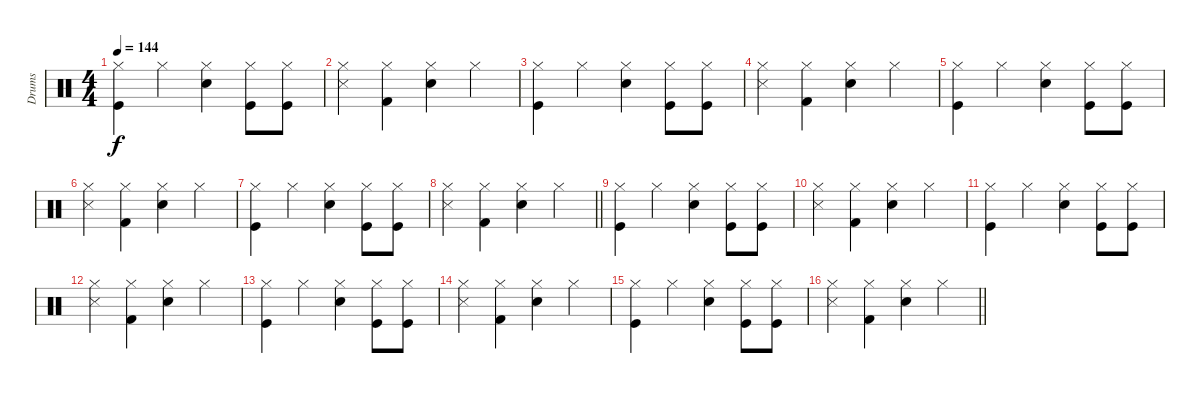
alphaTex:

\track ("Drums" "Drums") {instrument percussion}
\staff {score}
\articulation defaults
\ts (4 4)
\tempo 144
\clef neutral
\ks c
("Hi-Hat (closed)" "Kick (hit)").4{dy f} "Hi-Hat (closed)".4 ("Hi-Hat (closed)" "Electric Snare (hit)").4 ("Hi-Hat (closed)" "Kick (hit)").8 ("Hi-Hat (closed)" "Kick (hit)").8 |
("Hi-Hat (closed)" "Snare (side stick) 3").4 ("Hi-Hat (closed)" "Kick (hit) 2").4 ("Hi-Hat (closed)" "Electric Snare (hit)").4 "Hi-Hat (closed)".4 |
("Hi-Hat (closed)" "Kick (hit)").4 "Hi-Hat (closed)".4 ("Hi-Hat (closed)" "Electric Snare (hit)").4 ("Hi-Hat (closed)" "Kick (hit)").8 ("Hi-Hat (closed)" "Kick (hit)").8 |
("Hi-Hat (closed)" "Snare (side stick) 3").4 ("Hi-Hat (closed)" "Kick (hit) 2").4 ("Hi-Hat (closed)" "Electric Snare (hit)").4 "Hi-Hat (closed)".4 |
("Hi-Hat (closed)" "Kick (hit)").4 "Hi-Hat (closed)".4 ("Hi-Hat (closed)" "Electric Snare (hit)").4 ("Hi-Hat (closed)" "Kick (hit)").8 ("Hi-Hat (closed)" "Kick (hit)").8 |
("Hi-Hat (closed)" "Snare (side stick) 3").4 ("Hi-Hat (closed)" "Kick (hit) 2").4 ("Hi-Hat (closed)" "Electric Snare (hit)").4 "Hi-Hat (closed)".4 |
("Hi-Hat (closed)" "Kick (hit)").4 "Hi-Hat (closed)".4 ("Hi-Hat (closed)" "Electric Snare (hit)").4 ("Hi-Hat (closed)" "Kick (hit)").8 ("Hi-Hat (closed)" "Kick (hit)").8 |
\barLineRight lightlight
("Hi-Hat (closed)" "Snare (side stick) 3").4 ("Hi-Hat (closed)" "Kick (hit) 2").4 ("Hi-Hat (closed)" "Electric Snare (hit)").4 "Hi-Hat (closed)".4 |
("Hi-Hat (closed)" "Kick (hit)").4 "Hi-Hat (closed)".4 ("Hi-Hat (closed)" "Electric Snare (hit)").4 ("Hi-Hat (closed)" "Kick (hit)").8 ("Hi-Hat (closed)" "Kick (hit)").8 |
("Hi-Hat (closed)" "Snare (side stick) 3").4 ("Hi-Hat (closed)" "Kick (hit) 2").4 ("Hi-Hat (closed)" "Electric Snare (hit)").4 "Hi-Hat (closed)".4 |
("Hi-Hat (closed)" "Kick (hit)").4 "Hi-Hat (closed)".4 ("Hi-Hat (closed)" "Electric Snare (hit)").4 ("Hi-Hat (closed)" "Kick (hit)").8 ("Hi-Hat (closed)" "Kick (hit)").8 |
("Hi-Hat (closed)" "Snare (side stick) 3").4 ("Hi-Hat (closed)" "Kick (hit) 2").4 ("Hi-Hat (closed)" "Electric Snare (hit)").4 "Hi-Hat (closed)".4 |
("Hi-Hat (closed)" "Kick (hit)").4 "Hi-Hat (closed)".4 ("Hi-Hat (closed)" "Electric Snare (hit)").4 ("Hi-Hat (closed)" "Kick (hit)").8 ("Hi-Hat (closed)" "Kick (hit)").8 |
("Hi-Hat (closed)" "Snare (side stick) 3").4 ("Hi-Hat (closed)" "Kick (hit) 2").4 ("Hi-Hat (closed)" "Electric Snare (hit)").4 "Hi-Hat (closed)".4 |
("Hi-Hat (closed)" "Kick (hit)").4 "Hi-Hat (closed)".4 ("Hi-Hat (closed)" "Electric Snare (hit)").4 ("Hi-Hat (closed)" "Kick (hit)").8 ("Hi-Hat (closed)" "Kick (hit)").8 |
\barLineRight lightlight
("Hi-Hat (closed)" "Snare (side stick) 3").4 ("Hi-Hat (closed)" "Kick (hit) 2").4 ("Hi-Hat (closed)" "Electric Snare (hit)").4 "Hi-Hat (closed)".4
